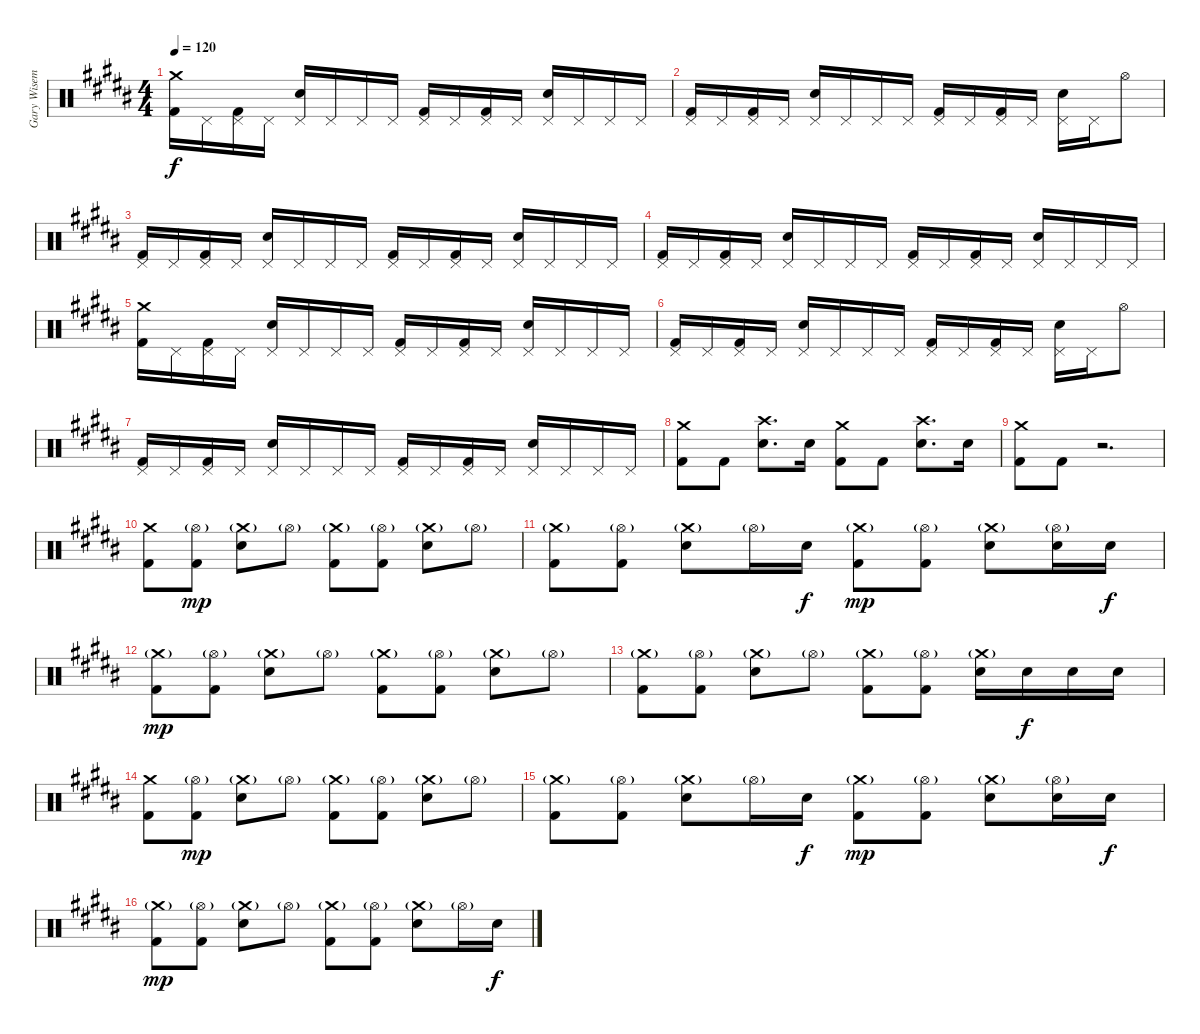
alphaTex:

\track ("Gary Wiseman - Drums" "Gary Wisem") {instrument percussion}
\staff {score}
\articulation defaults
\ts (4 4)
\tempo 120
\clef neutral
\ks b
("Crash medium (hit)" "Kick (hit) 2").16{dy f} "Pedal Hi-Hat (hit)".16 ("Pedal Hi-Hat (hit)" "Kick (hit) 2").16 "Pedal Hi-Hat (hit)".16 ("Pedal Hi-Hat (hit)" "Electric Snare (hit)").16 "Pedal Hi-Hat (hit)".16 "Pedal Hi-Hat (hit)".16 "Pedal Hi-Hat (hit)".16 ("Pedal Hi-Hat (hit)" "Kick (hit) 2").16 "Pedal Hi-Hat (hit)".16 ("Pedal Hi-Hat (hit)" "Kick (hit) 2").16 "Pedal Hi-Hat (hit)".16 ("Pedal Hi-Hat (hit)" "Electric Snare (hit)").16 "Pedal Hi-Hat (hit)".16 "Pedal Hi-Hat (hit)".16 "Pedal Hi-Hat (hit)".16 |
("Pedal Hi-Hat (hit)" "Kick (hit) 2").16 "Pedal Hi-Hat (hit)".16 ("Pedal Hi-Hat (hit)" "Kick (hit) 2").16 "Pedal Hi-Hat (hit)".16 ("Pedal Hi-Hat (hit)" "Electric Snare (hit)").16 "Pedal Hi-Hat (hit)".16 "Pedal Hi-Hat (hit)".16 "Pedal Hi-Hat (hit)".16 ("Pedal Hi-Hat (hit)" "Kick (hit) 2").16 "Pedal Hi-Hat (hit)".16 ("Pedal Hi-Hat (hit)" "Kick (hit) 2").16 "Pedal Hi-Hat (hit)".16 ("Pedal Hi-Hat (hit)" "Electric Snare (hit)").16 "Pedal Hi-Hat (hit)".16 "Hi-Hat (open)".8 |
("Pedal Hi-Hat (hit)" "Kick (hit) 2").16 "Pedal Hi-Hat (hit)".16 ("Pedal Hi-Hat (hit)" "Kick (hit) 2").16 "Pedal Hi-Hat (hit)".16 ("Pedal Hi-Hat (hit)" "Electric Snare (hit)").16 "Pedal Hi-Hat (hit)".16 "Pedal Hi-Hat (hit)".16 "Pedal Hi-Hat (hit)".16 ("Pedal Hi-Hat (hit)" "Kick (hit) 2").16 "Pedal Hi-Hat (hit)".16 ("Pedal Hi-Hat (hit)" "Kick (hit) 2").16 "Pedal Hi-Hat (hit)".16 ("Pedal Hi-Hat (hit)" "Electric Snare (hit)").16 "Pedal Hi-Hat (hit)".16 "Pedal Hi-Hat (hit)".16 "Pedal Hi-Hat (hit)".16 |
("Pedal Hi-Hat (hit)" "Kick (hit) 2").16 "Pedal Hi-Hat (hit)".16 ("Pedal Hi-Hat (hit)" "Kick (hit) 2").16 "Pedal Hi-Hat (hit)".16 ("Pedal Hi-Hat (hit)" "Electric Snare (hit)").16 "Pedal Hi-Hat (hit)".16 "Pedal Hi-Hat (hit)".16 "Pedal Hi-Hat (hit)".16 ("Pedal Hi-Hat (hit)" "Kick (hit) 2").16 "Pedal Hi-Hat (hit)".16 ("Pedal Hi-Hat (hit)" "Kick (hit) 2").16 "Pedal Hi-Hat (hit)".16 ("Pedal Hi-Hat (hit)" "Electric Snare (hit)").16 "Pedal Hi-Hat (hit)".16 "Pedal Hi-Hat (hit)".16 "Pedal Hi-Hat (hit)".16 |
("Crash medium (hit)" "Kick (hit) 2").16 "Pedal Hi-Hat (hit)".16 ("Pedal Hi-Hat (hit)" "Kick (hit) 2").16 "Pedal Hi-Hat (hit)".16 ("Pedal Hi-Hat (hit)" "Electric Snare (hit)").16 "Pedal Hi-Hat (hit)".16 "Pedal Hi-Hat (hit)".16 "Pedal Hi-Hat (hit)".16 ("Pedal Hi-Hat (hit)" "Kick (hit) 2").16 "Pedal Hi-Hat (hit)".16 ("Pedal Hi-Hat (hit)" "Kick (hit) 2").16 "Pedal Hi-Hat (hit)".16 ("Pedal Hi-Hat (hit)" "Electric Snare (hit)").16 "Pedal Hi-Hat (hit)".16 "Pedal Hi-Hat (hit)".16 "Pedal Hi-Hat (hit)".16 |
("Pedal Hi-Hat (hit)" "Kick (hit) 2").16 "Pedal Hi-Hat (hit)".16 ("Pedal Hi-Hat (hit)" "Kick (hit) 2").16 "Pedal Hi-Hat (hit)".16 ("Pedal Hi-Hat (hit)" "Electric Snare (hit)").16 "Pedal Hi-Hat (hit)".16 "Pedal Hi-Hat (hit)".16 "Pedal Hi-Hat (hit)".16 ("Pedal Hi-Hat (hit)" "Kick (hit) 2").16 "Pedal Hi-Hat (hit)".16 ("Pedal Hi-Hat (hit)" "Kick (hit) 2").16 "Pedal Hi-Hat (hit)".16 ("Pedal Hi-Hat (hit)" "Electric Snare (hit)").16 "Pedal Hi-Hat (hit)".16 "Hi-Hat (open)".8 |
("Pedal Hi-Hat (hit)" "Kick (hit) 2").16 "Pedal Hi-Hat (hit)".16 ("Pedal Hi-Hat (hit)" "Kick (hit) 2").16 "Pedal Hi-Hat (hit)".16 ("Pedal Hi-Hat (hit)" "Electric Snare (hit)").16 "Pedal Hi-Hat (hit)".16 "Pedal Hi-Hat (hit)".16 "Pedal Hi-Hat (hit)".16 ("Pedal Hi-Hat (hit)" "Kick (hit) 2").16 "Pedal Hi-Hat (hit)".16 ("Pedal Hi-Hat (hit)" "Kick (hit) 2").16 "Pedal Hi-Hat (hit)".16 ("Pedal Hi-Hat (hit)" "Electric Snare (hit)").16 "Pedal Hi-Hat (hit)".16 "Pedal Hi-Hat (hit)".16 "Pedal Hi-Hat (hit)".16 |
("Crash medium (hit)" "Kick (hit) 2").8 "Kick (hit) 2".8 ("Crash high (hit)" "Electric Snare (hit)").8{d} "Electric Snare (hit)".16 ("Crash medium (hit)" "Kick (hit) 2").8 "Kick (hit) 2".8 ("Crash high (hit)" "Electric Snare (hit)").8{d} "Electric Snare (hit)".16 |
("Crash medium (hit)" "Kick (hit) 2").8 "Kick (hit) 2".8 r.2{d} |
("Crash medium (hit)" "Kick (hit) 2").8 ("Hi-Hat (open)"{g} "Kick (hit) 2").8{dy mp} ("Crash medium (hit)"{g} "Electric Snare (hit)").8 "Hi-Hat (open)"{g}.8 ("Crash medium (hit)"{g} "Kick (hit) 2").8 ("Hi-Hat (open)"{g} "Kick (hit) 2").8 ("Crash medium (hit)"{g} "Electric Snare (hit)").8 "Hi-Hat (open)"{g}.8 |
("Crash medium (hit)"{g} "Kick (hit) 2").8 ("Hi-Hat (open)"{g} "Kick (hit) 2").8 ("Crash medium (hit)"{g} "Electric Snare (hit)").8 "Hi-Hat (open)"{g}.16 "Electric Snare (hit)".16{dy f} ("Crash medium (hit)"{g} "Kick (hit) 2").8{dy mp} ("Hi-Hat (open)"{g} "Kick (hit) 2").8 ("Crash medium (hit)"{g} "Electric Snare (hit)").8 ("Hi-Hat (open)"{g} "Electric Snare (hit)").16 "Electric Snare (hit)".16{dy f} |
("Crash medium (hit)"{g} "Kick (hit) 2").8{dy mp} ("Hi-Hat (open)"{g} "Kick (hit) 2").8 ("Crash medium (hit)"{g} "Electric Snare (hit)").8 "Hi-Hat (open)"{g}.8 ("Crash medium (hit)"{g} "Kick (hit) 2").8 ("Hi-Hat (open)"{g} "Kick (hit) 2").8 ("Crash medium (hit)"{g} "Electric Snare (hit)").8 "Hi-Hat (open)"{g}.8 |
("Crash medium (hit)"{g} "Kick (hit) 2").8 ("Hi-Hat (open)"{g} "Kick (hit) 2").8 ("Crash medium (hit)"{g} "Electric Snare (hit)").8 "Hi-Hat (open)"{g}.8 ("Crash medium (hit)"{g} "Kick (hit) 2").8 ("Hi-Hat (open)"{g} "Kick (hit) 2").8 ("Crash medium (hit)"{g} "Electric Snare (hit)").16 "Electric Snare (hit)".16{dy f} "Electric Snare (hit)".16 "Electric Snare (hit)".16 |
("Crash medium (hit)" "Kick (hit) 2").8 ("Hi-Hat (open)"{g} "Kick (hit) 2").8{dy mp} ("Crash medium (hit)"{g} "Electric Snare (hit)").8 "Hi-Hat (open)"{g}.8 ("Crash medium (hit)"{g} "Kick (hit) 2").8 ("Hi-Hat (open)"{g} "Kick (hit) 2").8 ("Crash medium (hit)"{g} "Electric Snare (hit)").8 "Hi-Hat (open)"{g}.8 |
("Crash medium (hit)"{g} "Kick (hit) 2").8 ("Hi-Hat (open)"{g} "Kick (hit) 2").8 ("Crash medium (hit)"{g} "Electric Snare (hit)").8 "Hi-Hat (open)"{g}.16 "Electric Snare (hit)".16{dy f} ("Crash medium (hit)"{g} "Kick (hit) 2").8{dy mp} ("Hi-Hat (open)"{g} "Kick (hit) 2").8 ("Crash medium (hit)"{g} "Electric Snare (hit)").8 ("Hi-Hat (open)"{g} "Electric Snare (hit)").16 "Electric Snare (hit)".16{dy f} |
("Crash medium (hit)"{g} "Kick (hit) 2").8{dy mp} ("Hi-Hat (open)"{g} "Kick (hit) 2").8 ("Crash medium (hit)"{g} "Electric Snare (hit)").8 "Hi-Hat (open)"{g}.8 ("Crash medium (hit)"{g} "Kick (hit) 2").8 ("Hi-Hat (open)"{g} "Kick (hit) 2").8 ("Crash medium (hit)"{g} "Electric Snare (hit)").8 "Hi-Hat (open)"{g}.16 "Electric Snare (hit)".16{dy f}
